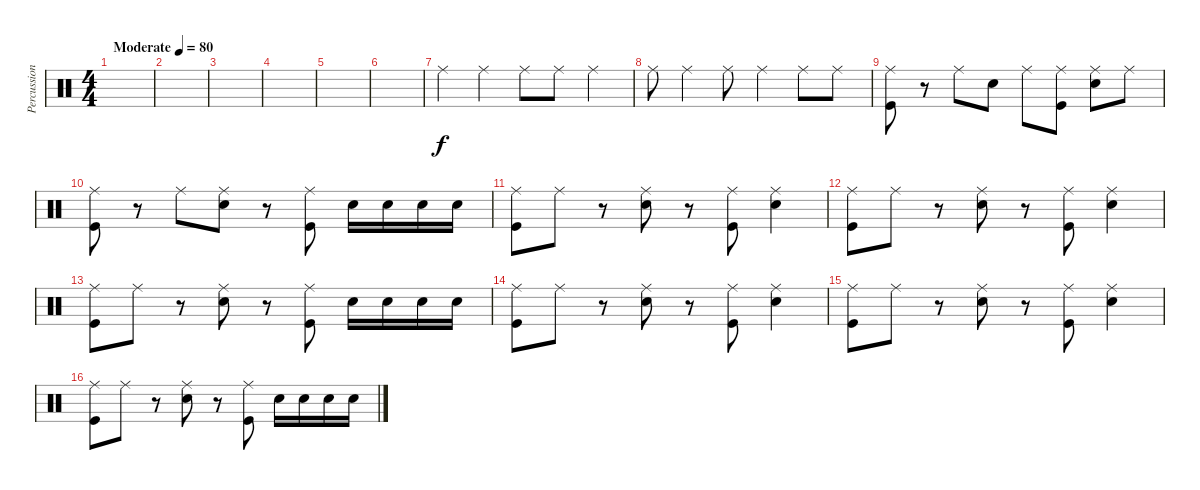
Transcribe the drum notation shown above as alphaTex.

\track ("Percussion" "Percussion") {instrument percussion}
\staff {score}
\articulation defaults
\ts (4 4)
\tempo (80 "Moderate")
\clef neutral
\ks c
|
|
|
|
|
|
"Ride (middle)".4 "Ride (middle)".4 "Ride (middle)".8 "Ride (middle)".8 "Ride (middle)".4 |
"Ride (middle)".8 "Ride (middle)".4 "Ride (middle)".8 "Ride (middle)".4 "Ride (middle)".8 "Ride (middle)".8 |
("Ride (middle)" "Kick (hit)").8 r.8 "Ride (middle)".8 "Electric Snare (hit)".8 "Ride (middle)".8 ("Ride (middle)" "Kick (hit)").8 ("Ride (middle)" "Electric Snare (hit)").8 "Ride (middle)".8 |
("Ride (middle)" "Kick (hit)").8 r.8 "Ride (middle)".8 ("Ride (middle)" "Electric Snare (hit)").8 r.8 ("Ride (middle)" "Kick (hit)").8 "Electric Snare (hit)".16 "Electric Snare (hit)".16 "Electric Snare (hit)".16 "Electric Snare (hit)".16 |
("Ride (middle)" "Kick (hit)").8 "Ride (middle)".8 r.8 ("Ride (middle)" "Electric Snare (hit)").8 r.8 ("Ride (middle)" "Kick (hit)").8 ("Ride (middle)" "Electric Snare (hit)").4 |
("Ride (middle)" "Kick (hit)").8 "Ride (middle)".8 r.8 ("Ride (middle)" "Electric Snare (hit)").8 r.8 ("Ride (middle)" "Kick (hit)").8 ("Ride (middle)" "Electric Snare (hit)").4 |
("Ride (middle)" "Kick (hit)").8 "Ride (middle)".8 r.8 ("Ride (middle)" "Electric Snare (hit)").8 r.8 ("Ride (middle)" "Kick (hit)").8 "Electric Snare (hit)".16 "Electric Snare (hit)".16 "Electric Snare (hit)".16 "Electric Snare (hit)".16 |
("Ride (middle)" "Kick (hit)").8 "Ride (middle)".8 r.8 ("Ride (middle)" "Electric Snare (hit)").8 r.8 ("Ride (middle)" "Kick (hit)").8 ("Ride (middle)" "Electric Snare (hit)").4 |
("Ride (middle)" "Kick (hit)").8 "Ride (middle)".8 r.8 ("Ride (middle)" "Electric Snare (hit)").8 r.8 ("Ride (middle)" "Kick (hit)").8 ("Ride (middle)" "Electric Snare (hit)").4 |
("Ride (middle)" "Kick (hit)").8 "Ride (middle)".8 r.8 ("Ride (middle)" "Electric Snare (hit)").8 r.8 ("Ride (middle)" "Kick (hit)").8 "Electric Snare (hit)".16 "Electric Snare (hit)".16 "Electric Snare (hit)".16 "Electric Snare (hit)".16
